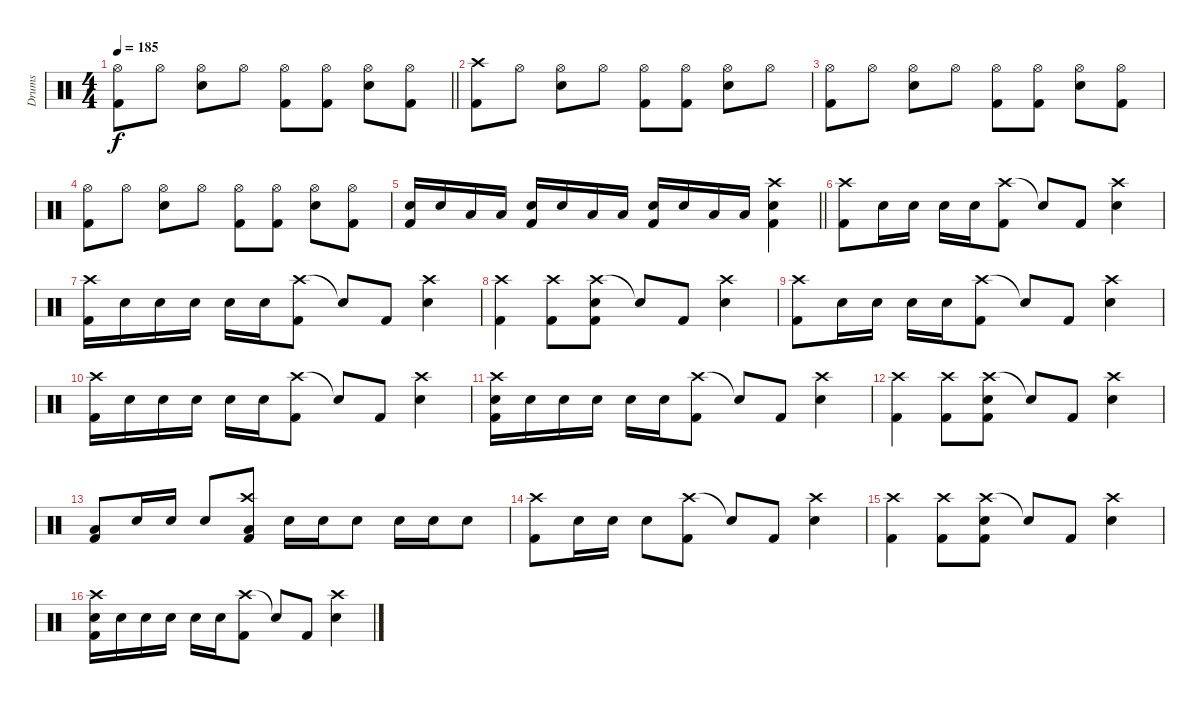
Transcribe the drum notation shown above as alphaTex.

\track ("Drums" "Drums") {instrument percussion}
\staff {score}
\articulation defaults
\ts (4 4)
\tempo 185
\clef neutral
\barLineRight lightlight
\ks c
("Hi-Hat (open)" "Kick (hit) 2").8{dy f} "Hi-Hat (open)".8 ("Hi-Hat (open)" "Electric Snare (hit)").8 "Hi-Hat (open)".8 ("Hi-Hat (open)" "Kick (hit) 2").8 ("Hi-Hat (open)" "Kick (hit) 2").8 ("Hi-Hat (open)" "Electric Snare (hit)").8 ("Hi-Hat (open)" "Kick (hit) 2").8 |
("Crash high (hit)" "Kick (hit) 2").8 "Hi-Hat (open)".8 ("Hi-Hat (open)" "Electric Snare (hit)").8 "Hi-Hat (open)".8 ("Hi-Hat (open)" "Kick (hit) 2").8 ("Hi-Hat (open)" "Kick (hit) 2").8 ("Hi-Hat (open)" "Electric Snare (hit)").8 "Hi-Hat (open)".8 |
("Hi-Hat (open)" "Kick (hit) 2").8 "Hi-Hat (open)".8 ("Hi-Hat (open)" "Electric Snare (hit)").8 "Hi-Hat (open)".8 ("Hi-Hat (open)" "Kick (hit) 2").8 ("Hi-Hat (open)" "Kick (hit) 2").8 ("Hi-Hat (open)" "Electric Snare (hit)").8 ("Hi-Hat (open)" "Kick (hit) 2").8 |
("Hi-Hat (open)" "Kick (hit) 2").8 "Hi-Hat (open)".8 ("Hi-Hat (open)" "Electric Snare (hit)").8 "Hi-Hat (open)".8 ("Hi-Hat (open)" "Kick (hit) 2").8 ("Hi-Hat (open)" "Kick (hit) 2").8 ("Hi-Hat (open)" "Electric Snare (hit)").8 ("Hi-Hat (open)" "Kick (hit) 2").8 |
\barLineRight lightlight
("Electric Snare (hit)" "Kick (hit) 2").16 "Electric Snare (hit)".16 "Low Tom (hit)".16 "Low Tom (hit)".16 ("Electric Snare (hit)" "Kick (hit) 2").16 "Electric Snare (hit)".16 "Low Tom (hit)".16 "Low Tom (hit)".16 ("Electric Snare (hit)" "Kick (hit) 2").16 "Electric Snare (hit)".16 "Low Tom (hit)".16 "Low Tom (hit)".16 ("Crash high (hit)" "Electric Snare (hit)" "Kick (hit) 2").4 |
("Crash high (hit)" "Kick (hit) 2").8 "Electric Snare (hit)".16 "Electric Snare (hit)".16 "Electric Snare (hit)".16 "Electric Snare (hit)".16 ("Crash high (hit)" "Kick (hit) 2").8 "Snare (hit)"{t}.8 "Kick (hit) 2".8 ("Crash high (hit)" "Electric Snare (hit)").4 |
("Crash high (hit)" "Kick (hit) 2").16 "Electric Snare (hit)".16 "Electric Snare (hit)".16 "Electric Snare (hit)".16 "Electric Snare (hit)".16 "Electric Snare (hit)".16 ("Crash high (hit)" "Kick (hit) 2").8 "Snare (hit)"{t}.8 "Kick (hit) 2".8 ("Crash high (hit)" "Electric Snare (hit)").4 |
("Crash high (hit)" "Kick (hit) 2").4 ("Crash high (hit)" "Kick (hit) 2").8 ("Crash high (hit)" "Electric Snare (hit)" "Kick (hit) 2").8 "Snare (hit)"{t}.8 "Kick (hit) 2".8 ("Crash high (hit)" "Electric Snare (hit)").4 |
("Crash high (hit)" "Kick (hit) 2").8 "Electric Snare (hit)".16 "Electric Snare (hit)".16 "Electric Snare (hit)".16 "Electric Snare (hit)".16 ("Crash high (hit)" "Kick (hit) 2").8 "Snare (hit)"{t}.8 "Kick (hit) 2".8 ("Crash high (hit)" "Electric Snare (hit)").4 |
("Crash high (hit)" "Kick (hit) 2").16 "Electric Snare (hit)".16 "Electric Snare (hit)".16 "Electric Snare (hit)".16 "Electric Snare (hit)".16 "Electric Snare (hit)".16 ("Crash high (hit)" "Kick (hit) 2").8 "Snare (hit)"{t}.8 "Kick (hit) 2".8 ("Crash high (hit)" "Electric Snare (hit)").4 |
("Crash high (hit)" "Electric Snare (hit)" "Kick (hit) 2").16 "Electric Snare (hit)".16 "Electric Snare (hit)".16 "Electric Snare (hit)".16 "Electric Snare (hit)".16 "Electric Snare (hit)".16 ("Crash high (hit)" "Kick (hit) 2").8 "Snare (hit)"{t}.8 "Kick (hit) 2".8 ("Crash high (hit)" "Electric Snare (hit)").4 |
("Crash high (hit)" "Kick (hit) 2").4 ("Crash high (hit)" "Kick (hit) 2").8 ("Crash high (hit)" "Electric Snare (hit)" "Kick (hit) 2").8 "Snare (hit)"{t}.8 "Kick (hit) 2".8 ("Crash high (hit)" "Electric Snare (hit)").4 |
("Low Tom (hit)" "Kick (hit) 2").8 "Electric Snare (hit)".16 "Electric Snare (hit)".16 "Electric Snare (hit)".8 ("Crash high (hit)" "Low Tom (hit)" "Kick (hit) 2").8 "Electric Snare (hit)".16 "Electric Snare (hit)".16 "Electric Snare (hit)".8 "Electric Snare (hit)".16 "Electric Snare (hit)".16 "Electric Snare (hit)".8 |
("Crash high (hit)" "Kick (hit) 2").8 "Electric Snare (hit)".16 "Electric Snare (hit)".16 "Electric Snare (hit)".8 ("Crash high (hit)" "Kick (hit) 2").8 "Snare (hit)"{t}.8 "Kick (hit) 2".8 ("Crash high (hit)" "Electric Snare (hit)").4 |
("Crash high (hit)" "Kick (hit) 2").4 ("Crash high (hit)" "Kick (hit) 2").8 ("Crash high (hit)" "Electric Snare (hit)" "Kick (hit) 2").8 "Snare (hit)"{t}.8 "Kick (hit) 2".8 ("Crash high (hit)" "Electric Snare (hit)").4 |
("Crash high (hit)" "Electric Snare (hit)" "Kick (hit) 2").16 "Electric Snare (hit)".16 "Electric Snare (hit)".16 "Electric Snare (hit)".16 "Electric Snare (hit)".16 "Electric Snare (hit)".16 ("Crash high (hit)" "Kick (hit) 2").8 "Snare (hit)"{t}.8 "Kick (hit) 2".8 ("Crash high (hit)" "Electric Snare (hit)").4
